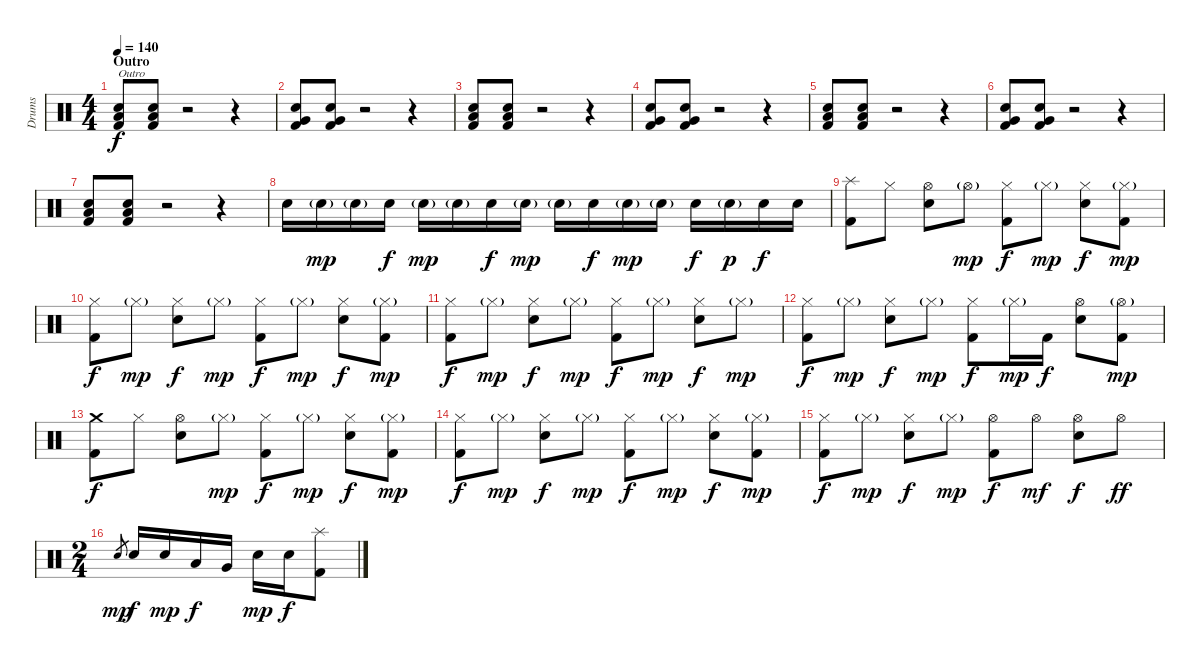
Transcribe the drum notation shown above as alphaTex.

\track ("Drums" "Drums") {instrument percussion}
\staff {score}
\articulation defaults
\ts (4 4)
\section ("" "Outro")
\tempo 140
\clef neutral
\ks c
("Low Floor Tom (hit)" "Snare (hit) 2" "Kick (hit) 2").8{txt "Outro" dy f} ("Low Floor Tom (hit)" "Snare (hit) 2" "Kick (hit) 2").8 r.2 r.4 |
("Very Low Tom (hit)" "Snare (hit) 2" "Kick (hit) 2").8 ("Very Low Tom (hit)" "Snare (hit) 2" "Kick (hit) 2").8 r.2 r.4 |
("Low Floor Tom (hit)" "Snare (hit) 2" "Kick (hit) 2").8 ("Low Floor Tom (hit)" "Snare (hit) 2" "Kick (hit) 2").8 r.2 r.4 |
("Very Low Tom (hit)" "Snare (hit) 2" "Kick (hit) 2").8 ("Very Low Tom (hit)" "Snare (hit) 2" "Kick (hit) 2").8 r.2 r.4 |
("Low Floor Tom (hit)" "Snare (hit) 2" "Kick (hit) 2").8 ("Low Floor Tom (hit)" "Snare (hit) 2" "Kick (hit) 2").8 r.2 r.4 |
("Very Low Tom (hit)" "Snare (hit) 2" "Kick (hit) 2").8 ("Very Low Tom (hit)" "Snare (hit) 2" "Kick (hit) 2").8 r.2 r.4 |
("Low Floor Tom (hit)" "Snare (hit) 2" "Kick (hit) 2").8 ("Low Floor Tom (hit)" "Snare (hit) 2" "Kick (hit) 2").8 r.2 r.4 |
"Snare (hit) 2".16 "Snare (hit) 2"{g}.16{dy mp} "Snare (hit) 2"{g}.16 "Snare (hit) 2".16{dy f} "Snare (hit) 2"{g}.16{dy mp} "Snare (hit) 2"{g}.16 "Snare (hit) 2".16{dy f} "Snare (hit) 2"{g}.16{dy mp} "Snare (hit) 2"{g}.16 "Snare (hit) 2".16{dy f} "Snare (hit) 2"{g}.16{dy mp} "Snare (hit) 2"{g}.16 "Snare (hit) 2".16{dy f} "Snare (hit) 2"{g}.16{dy p} "Snare (hit) 2".16{dy f} "Snare (hit) 2".16 |
("Splash (hit)" "Kick (hit) 2").8 "Hi-Hat (closed)".8 ("Hi-Hat (open)" "Snare (hit) 2").8 "Hi-Hat (open)"{g}.8{dy mp} ("Hi-Hat (closed)" "Kick (hit) 2").8{dy f} "Hi-Hat (closed)"{g}.8{dy mp} ("Hi-Hat (closed)" "Snare (hit) 2").8{dy f} ("Hi-Hat (closed)"{g} "Kick (hit) 2").8{dy mp} |
("Hi-Hat (closed)" "Kick (hit) 2").8{dy f} "Hi-Hat (closed)"{g}.8{dy mp} ("Hi-Hat (closed)" "Snare (hit) 2").8{dy f} "Hi-Hat (closed)"{g}.8{dy mp} ("Hi-Hat (closed)" "Kick (hit) 2").8{dy f} "Hi-Hat (closed)"{g}.8{dy mp} ("Hi-Hat (closed)" "Snare (hit) 2").8{dy f} ("Hi-Hat (closed)"{g} "Kick (hit) 2").8{dy mp} |
("Hi-Hat (closed)" "Kick (hit) 2").8{dy f} "Hi-Hat (closed)"{g}.8{dy mp} ("Hi-Hat (closed)" "Snare (hit) 2").8{dy f} "Hi-Hat (closed)"{g}.8{dy mp} ("Hi-Hat (closed)" "Kick (hit) 2").8{dy f} "Hi-Hat (closed)"{g}.8{dy mp} ("Hi-Hat (closed)" "Snare (hit) 2").8{dy f} "Hi-Hat (closed)"{g}.8{dy mp} |
("Hi-Hat (closed)" "Kick (hit) 2").8{dy f} "Hi-Hat (closed)"{g}.8{dy mp} ("Hi-Hat (closed)" "Snare (hit) 2").8{dy f} "Hi-Hat (closed)"{g}.8{dy mp} ("Hi-Hat (closed)" "Kick (hit) 2").8{dy f} "Hi-Hat (closed)"{g}.16{dy mp} "Kick (hit) 2".16{dy f} ("Hi-Hat (open)" "Snare (hit) 2").8 ("Hi-Hat (open)"{g} "Kick (hit) 2").8{dy mp} |
("Crash medium (hit)" "Kick (hit) 2").8{dy f} "Hi-Hat (closed)".8 ("Hi-Hat (open)" "Snare (hit) 2").8 "Hi-Hat (closed)"{g}.8{dy mp} ("Hi-Hat (closed)" "Kick (hit) 2").8{dy f} "Hi-Hat (closed)"{g}.8{dy mp} ("Hi-Hat (closed)" "Snare (hit) 2").8{dy f} ("Hi-Hat (closed)"{g} "Kick (hit) 2").8{dy mp} |
("Hi-Hat (closed)" "Kick (hit) 2").8{dy f} "Hi-Hat (closed)"{g}.8{dy mp} ("Hi-Hat (closed)" "Snare (hit) 2").8{dy f} "Hi-Hat (closed)"{g}.8{dy mp} ("Hi-Hat (closed)" "Kick (hit) 2").8{dy f} "Hi-Hat (closed)"{g}.8{dy mp} ("Hi-Hat (closed)" "Snare (hit) 2").8{dy f} ("Hi-Hat (closed)"{g} "Kick (hit) 2").8{dy mp} |
("Hi-Hat (closed)" "Kick (hit) 2").8{dy f} "Hi-Hat (closed)"{g}.8{dy mp} ("Hi-Hat (closed)" "Snare (hit) 2").8{dy f} "Hi-Hat (closed)"{g}.8{dy mp} ("Hi-Hat (open)" "Kick (hit) 2").8{dy f} "Hi-Hat (open)".8{dy mf} ("Hi-Hat (open)" "Snare (hit) 2").8{dy f} "Hi-Hat (open)".8{dy ff} |
\ts (2 4)
"Snare (hit) 2".8{gr dy mp} "Snare (hit) 2".16{dy f} "Snare (hit) 2".16{dy mp} "Low Tom (hit)".16{dy f} "Very Low Tom (hit)".16 "Snare (hit) 2".16{dy mp} "Snare (hit) 2".16{dy f} ("Splash (hit)" "Kick (hit) 2").8
